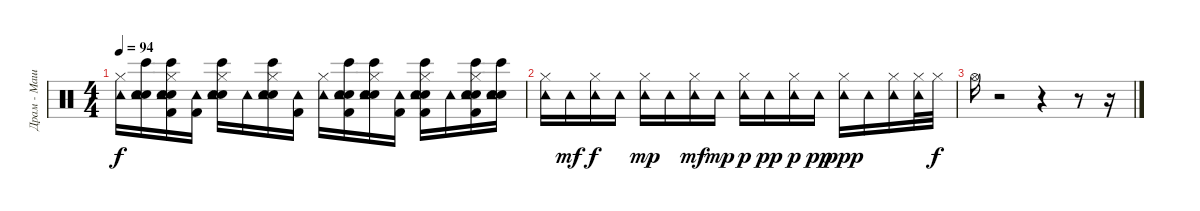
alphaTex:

\track ("Драм - Машина" "Драм - Маш") {instrument percussion}
\staff {score}
\articulation defaults
\ts (4 4)
\tempo 94
\clef neutral
\ks c
("Hi-Hat (closed)" "Tambourine (hit)").16{dy f} ("Electric Snare (hit)" "Bongo High (hit)" "Snare (hit) 2" "Tambourine (hit)").16 ("Snare (hit) 2" "Electric Snare (hit)" "Hi-Hat (closed)" "Bongo High (hit)" "Tambourine (hit)" "Kick (hit) 2").16 ("Tambourine (hit)" "Kick (hit) 2").16 ("Snare (hit) 2" "Hi-Hat (closed)" "Bongo High (hit)" "Electric Snare (hit)" "Tambourine (hit)").16 "Tambourine (hit)".16 ("Bongo High (hit)" "Snare (hit) 2" "Hi-Hat (closed)" "Tambourine (hit)" "Electric Snare (hit)").16 ("Tambourine (hit)" "Kick (hit) 2").16 ("Tambourine (hit)" "Hi-Hat (closed)").16 ("Snare (hit) 2" "Electric Snare (hit)" "Tambourine (hit)" "Bongo High (hit)" "Kick (hit) 2").16 ("Snare (hit) 2" "Tambourine (hit)" "Hi-Hat (closed)" "Bongo High (hit)" "Electric Snare (hit)").16 ("Tambourine (hit)" "Kick (hit) 2").16 ("Electric Snare (hit)" "Tambourine (hit)" "Hi-Hat (closed)" "Snare (hit) 2" "Bongo High (hit)" "Kick (hit) 2").16 "Tambourine (hit)".16 ("Electric Snare (hit)" "Tambourine (hit)" "Bongo High (hit)" "Snare (hit) 2" "Hi-Hat (closed)" "Kick (hit) 2").16 ("Snare (hit) 2" "Tambourine (hit)" "Bongo High (hit)" "Electric Snare (hit)").16 |
("Hi-Hat (closed)" "Tambourine (hit)").16 "Tambourine (hit)".16{dy mf} ("Hi-Hat (closed)" "Tambourine (hit)").16{dy f} "Tambourine (hit)".16 ("Hi-Hat (closed)" "Tambourine (hit)").16{dy mp} "Tambourine (hit)".16 ("Tambourine (hit)" "Hi-Hat (closed)").16{dy mf} "Tambourine (hit)".16{dy mp} ("Hi-Hat (closed)" "Tambourine (hit)").16{dy p} "Tambourine (hit)".16{dy pp} ("Hi-Hat (closed)" "Tambourine (hit)").16{dy p} "Tambourine (hit)".16{dy pp} ("Hi-Hat (closed)" "Tambourine (hit)").16{dy ppp} "Tambourine (hit)".16 ("Tambourine (hit)" "Hi-Hat (closed)").16 ("Tambourine (hit)" "Hi-Hat (closed)").32 "Hi-Hat (closed)".32{dy f} |
"Hi-Hat (open)".16 r.2 r.4 r.8 r.16
